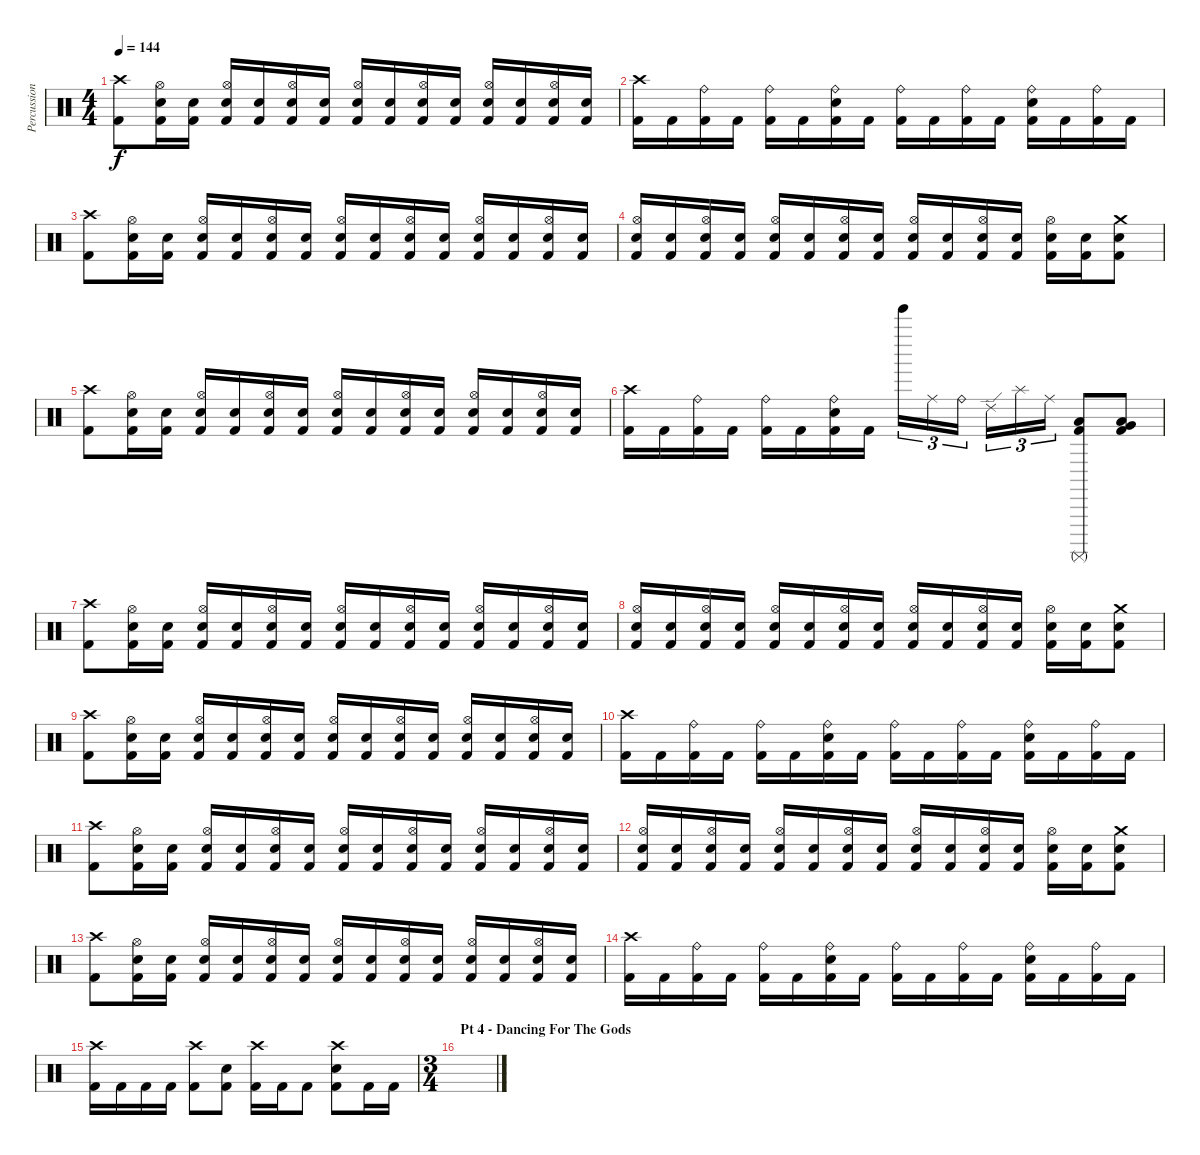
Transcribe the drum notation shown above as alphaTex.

\track ("Percussion" "Percussion") {instrument percussion}
\staff {score}
\articulation defaults
\ts (4 4)
\tempo 144
\clef neutral
\ks c
("Crash high (hit)" "Kick (hit) 2").8{dy f} ("Hi-Hat (open)" "Electric Snare (hit)" "Kick (hit) 2").16 ("Electric Snare (hit)" "Kick (hit) 2").16 ("Hi-Hat (open)" "Electric Snare (hit)" "Kick (hit) 2").16 ("Electric Snare (hit)" "Kick (hit) 2").16 ("Hi-Hat (open)" "Electric Snare (hit)" "Kick (hit) 2").16 ("Electric Snare (hit)" "Kick (hit) 2").16 ("Hi-Hat (open)" "Electric Snare (hit)" "Kick (hit) 2").16 ("Electric Snare (hit)" "Kick (hit) 2").16 ("Hi-Hat (open)" "Electric Snare (hit)" "Kick (hit) 2").16 ("Electric Snare (hit)" "Kick (hit) 2").16 ("Hi-Hat (open)" "Electric Snare (hit)" "Kick (hit) 2").16 ("Electric Snare (hit)" "Kick (hit) 2").16 ("Hi-Hat (open)" "Electric Snare (hit)" "Kick (hit) 2").16 ("Electric Snare (hit)" "Kick (hit) 2").16 |
("Crash high (hit)" "Kick (hit) 2").16 "Kick (hit) 2".16 ("Ride (bell)" "Kick (hit) 2").16 "Kick (hit) 2".16 ("Ride (bell)" "Kick (hit) 2").16 "Kick (hit) 2".16 ("Ride (bell)" "Electric Snare (hit)" "Kick (hit) 2").16 "Kick (hit) 2".16 ("Ride (bell)" "Kick (hit) 2").16 "Kick (hit) 2".16 ("Ride (bell)" "Kick (hit) 2").16 "Kick (hit) 2".16 ("Ride (bell)" "Electric Snare (hit)" "Kick (hit) 2").16 "Kick (hit) 2".16 ("Ride (bell)" "Kick (hit) 2").16 "Kick (hit) 2".16 |
("Crash high (hit)" "Kick (hit) 2").8 ("Hi-Hat (open)" "Electric Snare (hit)" "Kick (hit) 2").16 ("Electric Snare (hit)" "Kick (hit) 2").16 ("Hi-Hat (open)" "Electric Snare (hit)" "Kick (hit) 2").16 ("Electric Snare (hit)" "Kick (hit) 2").16 ("Hi-Hat (open)" "Electric Snare (hit)" "Kick (hit) 2").16 ("Electric Snare (hit)" "Kick (hit) 2").16 ("Hi-Hat (open)" "Electric Snare (hit)" "Kick (hit) 2").16 ("Electric Snare (hit)" "Kick (hit) 2").16 ("Hi-Hat (open)" "Electric Snare (hit)" "Kick (hit) 2").16 ("Electric Snare (hit)" "Kick (hit) 2").16 ("Hi-Hat (open)" "Electric Snare (hit)" "Kick (hit) 2").16 ("Electric Snare (hit)" "Kick (hit) 2").16 ("Hi-Hat (open)" "Electric Snare (hit)" "Kick (hit) 2").16 ("Electric Snare (hit)" "Kick (hit) 2").16 |
("Hi-Hat (open)" "Electric Snare (hit)" "Kick (hit) 2").16 ("Electric Snare (hit)" "Kick (hit) 2").16 ("Hi-Hat (open)" "Electric Snare (hit)" "Kick (hit) 2").16 ("Electric Snare (hit)" "Kick (hit) 2").16 ("Hi-Hat (open)" "Electric Snare (hit)" "Kick (hit) 2").16 ("Electric Snare (hit)" "Kick (hit) 2").16 ("Hi-Hat (open)" "Electric Snare (hit)" "Kick (hit) 2").16 ("Electric Snare (hit)" "Kick (hit) 2").16 ("Hi-Hat (open)" "Electric Snare (hit)" "Kick (hit) 2").16 ("Electric Snare (hit)" "Kick (hit) 2").16 ("Hi-Hat (open)" "Electric Snare (hit)" "Kick (hit) 2").16 ("Electric Snare (hit)" "Kick (hit) 2").16 ("Hi-Hat (open)" "Electric Snare (hit)" "Kick (hit) 2").16 ("Electric Snare (hit)" "Kick (hit) 2").16 ("Crash medium (hit)" "Electric Snare (hit)" "Kick (hit) 2").8 |
("Crash high (hit)" "Kick (hit) 2").8 ("Hi-Hat (open)" "Electric Snare (hit)" "Kick (hit) 2").16 ("Electric Snare (hit)" "Kick (hit) 2").16 ("Hi-Hat (open)" "Electric Snare (hit)" "Kick (hit) 2").16 ("Electric Snare (hit)" "Kick (hit) 2").16 ("Hi-Hat (open)" "Electric Snare (hit)" "Kick (hit) 2").16 ("Electric Snare (hit)" "Kick (hit) 2").16 ("Hi-Hat (open)" "Electric Snare (hit)" "Kick (hit) 2").16 ("Electric Snare (hit)" "Kick (hit) 2").16 ("Hi-Hat (open)" "Electric Snare (hit)" "Kick (hit) 2").16 ("Electric Snare (hit)" "Kick (hit) 2").16 ("Hi-Hat (open)" "Electric Snare (hit)" "Kick (hit) 2").16 ("Electric Snare (hit)" "Kick (hit) 2").16 ("Hi-Hat (open)" "Electric Snare (hit)" "Kick (hit) 2").16 ("Electric Snare (hit)" "Kick (hit) 2").16 |
("Crash high (hit)" "Kick (hit) 2").16 "Kick (hit) 2".16 ("Ride (bell)" "Kick (hit) 2").16 "Kick (hit) 2".16 ("Ride (bell)" "Kick (hit) 2").16 "Kick (hit) 2".16 ("Ride (bell)" "Electric Snare (hit)" "Kick (hit) 2").16 "Kick (hit) 2".16 "Tinkle Bell (hit)".16{tu (3 2)} "Ride (middle)".16{tu (3 2)} "Ride (bell)".16{tu (3 2)} "Ride (edge) 2".16{tu (3 2)} "Splash (hit)".16{tu (3 2)} "Ride (middle)".16{tu (3 2)} ("Low Tom (hit)" "Surdo (mute)" "Kick (hit) 2").8 ("Very Low Tom (hit)" "Low Tom (hit)" "Kick (hit) 2").8 |
("Crash high (hit)" "Kick (hit) 2").8 ("Hi-Hat (open)" "Electric Snare (hit)" "Kick (hit) 2").16 ("Electric Snare (hit)" "Kick (hit) 2").16 ("Hi-Hat (open)" "Electric Snare (hit)" "Kick (hit) 2").16 ("Electric Snare (hit)" "Kick (hit) 2").16 ("Hi-Hat (open)" "Electric Snare (hit)" "Kick (hit) 2").16 ("Electric Snare (hit)" "Kick (hit) 2").16 ("Hi-Hat (open)" "Electric Snare (hit)" "Kick (hit) 2").16 ("Electric Snare (hit)" "Kick (hit) 2").16 ("Hi-Hat (open)" "Electric Snare (hit)" "Kick (hit) 2").16 ("Electric Snare (hit)" "Kick (hit) 2").16 ("Hi-Hat (open)" "Electric Snare (hit)" "Kick (hit) 2").16 ("Electric Snare (hit)" "Kick (hit) 2").16 ("Hi-Hat (open)" "Electric Snare (hit)" "Kick (hit) 2").16 ("Electric Snare (hit)" "Kick (hit) 2").16 |
("Hi-Hat (open)" "Electric Snare (hit)" "Kick (hit) 2").16 ("Electric Snare (hit)" "Kick (hit) 2").16 ("Hi-Hat (open)" "Electric Snare (hit)" "Kick (hit) 2").16 ("Electric Snare (hit)" "Kick (hit) 2").16 ("Hi-Hat (open)" "Electric Snare (hit)" "Kick (hit) 2").16 ("Electric Snare (hit)" "Kick (hit) 2").16 ("Hi-Hat (open)" "Electric Snare (hit)" "Kick (hit) 2").16 ("Electric Snare (hit)" "Kick (hit) 2").16 ("Hi-Hat (open)" "Electric Snare (hit)" "Kick (hit) 2").16 ("Electric Snare (hit)" "Kick (hit) 2").16 ("Hi-Hat (open)" "Electric Snare (hit)" "Kick (hit) 2").16 ("Electric Snare (hit)" "Kick (hit) 2").16 ("Hi-Hat (open)" "Electric Snare (hit)" "Kick (hit) 2").16 ("Electric Snare (hit)" "Kick (hit) 2").16 ("Crash medium (hit)" "Electric Snare (hit)" "Kick (hit) 2").8 |
("Crash high (hit)" "Kick (hit) 2").8 ("Hi-Hat (open)" "Electric Snare (hit)" "Kick (hit) 2").16 ("Electric Snare (hit)" "Kick (hit) 2").16 ("Hi-Hat (open)" "Electric Snare (hit)" "Kick (hit) 2").16 ("Electric Snare (hit)" "Kick (hit) 2").16 ("Hi-Hat (open)" "Electric Snare (hit)" "Kick (hit) 2").16 ("Electric Snare (hit)" "Kick (hit) 2").16 ("Hi-Hat (open)" "Electric Snare (hit)" "Kick (hit) 2").16 ("Electric Snare (hit)" "Kick (hit) 2").16 ("Hi-Hat (open)" "Electric Snare (hit)" "Kick (hit) 2").16 ("Electric Snare (hit)" "Kick (hit) 2").16 ("Hi-Hat (open)" "Electric Snare (hit)" "Kick (hit) 2").16 ("Electric Snare (hit)" "Kick (hit) 2").16 ("Hi-Hat (open)" "Electric Snare (hit)" "Kick (hit) 2").16 ("Electric Snare (hit)" "Kick (hit) 2").16 |
("Crash high (hit)" "Kick (hit) 2").16 "Kick (hit) 2".16 ("Ride (bell)" "Kick (hit) 2").16 "Kick (hit) 2".16 ("Ride (bell)" "Kick (hit) 2").16 "Kick (hit) 2".16 ("Ride (bell)" "Electric Snare (hit)" "Kick (hit) 2").16 "Kick (hit) 2".16 ("Ride (bell)" "Kick (hit) 2").16 "Kick (hit) 2".16 ("Ride (bell)" "Kick (hit) 2").16 "Kick (hit) 2".16 ("Ride (bell)" "Electric Snare (hit)" "Kick (hit) 2").16 "Kick (hit) 2".16 ("Ride (bell)" "Kick (hit) 2").16 "Kick (hit) 2".16 |
("Crash high (hit)" "Kick (hit) 2").8 ("Hi-Hat (open)" "Electric Snare (hit)" "Kick (hit) 2").16 ("Electric Snare (hit)" "Kick (hit) 2").16 ("Hi-Hat (open)" "Electric Snare (hit)" "Kick (hit) 2").16 ("Electric Snare (hit)" "Kick (hit) 2").16 ("Hi-Hat (open)" "Electric Snare (hit)" "Kick (hit) 2").16 ("Electric Snare (hit)" "Kick (hit) 2").16 ("Hi-Hat (open)" "Electric Snare (hit)" "Kick (hit) 2").16 ("Electric Snare (hit)" "Kick (hit) 2").16 ("Hi-Hat (open)" "Electric Snare (hit)" "Kick (hit) 2").16 ("Electric Snare (hit)" "Kick (hit) 2").16 ("Hi-Hat (open)" "Electric Snare (hit)" "Kick (hit) 2").16 ("Electric Snare (hit)" "Kick (hit) 2").16 ("Hi-Hat (open)" "Electric Snare (hit)" "Kick (hit) 2").16 ("Electric Snare (hit)" "Kick (hit) 2").16 |
("Hi-Hat (open)" "Electric Snare (hit)" "Kick (hit) 2").16 ("Electric Snare (hit)" "Kick (hit) 2").16 ("Hi-Hat (open)" "Electric Snare (hit)" "Kick (hit) 2").16 ("Electric Snare (hit)" "Kick (hit) 2").16 ("Hi-Hat (open)" "Electric Snare (hit)" "Kick (hit) 2").16 ("Electric Snare (hit)" "Kick (hit) 2").16 ("Hi-Hat (open)" "Electric Snare (hit)" "Kick (hit) 2").16 ("Electric Snare (hit)" "Kick (hit) 2").16 ("Hi-Hat (open)" "Electric Snare (hit)" "Kick (hit) 2").16 ("Electric Snare (hit)" "Kick (hit) 2").16 ("Hi-Hat (open)" "Electric Snare (hit)" "Kick (hit) 2").16 ("Electric Snare (hit)" "Kick (hit) 2").16 ("Hi-Hat (open)" "Electric Snare (hit)" "Kick (hit) 2").16 ("Electric Snare (hit)" "Kick (hit) 2").16 ("Crash medium (hit)" "Electric Snare (hit)" "Kick (hit) 2").8 |
("Crash high (hit)" "Kick (hit) 2").8 ("Hi-Hat (open)" "Electric Snare (hit)" "Kick (hit) 2").16 ("Electric Snare (hit)" "Kick (hit) 2").16 ("Hi-Hat (open)" "Electric Snare (hit)" "Kick (hit) 2").16 ("Electric Snare (hit)" "Kick (hit) 2").16 ("Hi-Hat (open)" "Electric Snare (hit)" "Kick (hit) 2").16 ("Electric Snare (hit)" "Kick (hit) 2").16 ("Hi-Hat (open)" "Electric Snare (hit)" "Kick (hit) 2").16 ("Electric Snare (hit)" "Kick (hit) 2").16 ("Hi-Hat (open)" "Electric Snare (hit)" "Kick (hit) 2").16 ("Electric Snare (hit)" "Kick (hit) 2").16 ("Hi-Hat (open)" "Electric Snare (hit)" "Kick (hit) 2").16 ("Electric Snare (hit)" "Kick (hit) 2").16 ("Hi-Hat (open)" "Electric Snare (hit)" "Kick (hit) 2").16 ("Electric Snare (hit)" "Kick (hit) 2").16 |
("Crash high (hit)" "Kick (hit) 2").16 "Kick (hit) 2".16 ("Ride (bell)" "Kick (hit) 2").16 "Kick (hit) 2".16 ("Ride (bell)" "Kick (hit) 2").16 "Kick (hit) 2".16 ("Ride (bell)" "Electric Snare (hit)" "Kick (hit) 2").16 "Kick (hit) 2".16 ("Ride (bell)" "Kick (hit) 2").16 "Kick (hit) 2".16 ("Ride (bell)" "Kick (hit) 2").16 "Kick (hit) 2".16 ("Ride (bell)" "Electric Snare (hit)" "Kick (hit) 2").16 "Kick (hit) 2".16 ("Ride (bell)" "Kick (hit) 2").16 "Kick (hit) 2".16 |
("Crash high (hit)" "Kick (hit) 2").16 "Kick (hit) 2".16 "Kick (hit) 2".16 "Kick (hit) 2".16 ("Crash high (hit)" "Kick (hit) 2").8 ("Electric Snare (hit)" "Kick (hit) 2").8 ("Crash high (hit)" "Kick (hit) 2").16 "Kick (hit) 2".16 "Kick (hit) 2".8 ("Crash high (hit)" "Electric Snare (hit)" "Kick (hit) 2").8 "Kick (hit) 2".16 "Kick (hit) 2".16 |
\ts (3 4)
\section ("" "Pt 4 - Dancing For The Gods")
